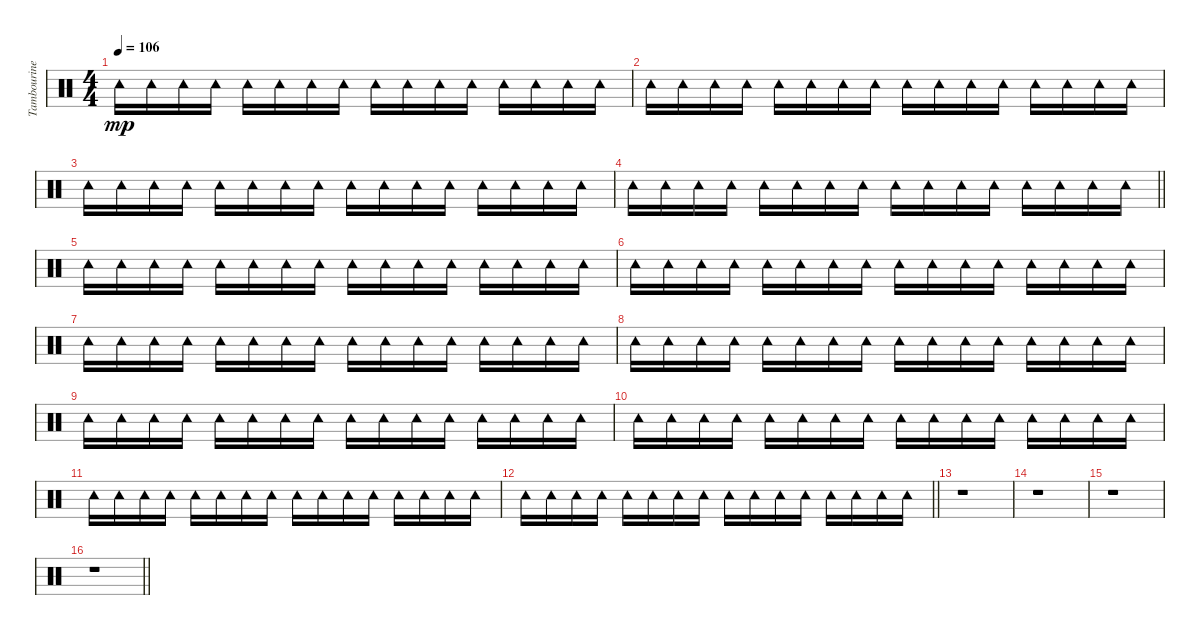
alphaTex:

\track ("Tambourine" "Tambourine") {instrument percussion}
\staff {score}
\articulation defaults
\ts (4 4)
\tempo 106
\clef neutral
\ks c "Tambourine (hit)".16{dy mp} "Tambourine (hit)".16 "Tambourine (hit)".16 "Tambourine (hit)".16 "Tambourine (hit)".16 "Tambourine (hit)".16 "Tambourine (hit)".16 "Tambourine (hit)".16 "Tambourine (hit)".16 "Tambourine (hit)".16 "Tambourine (hit)".16 "Tambourine (hit)".16 "Tambourine (hit)".16 "Tambourine (hit)".16 "Tambourine (hit)".16 "Tambourine (hit)".16
|
"Tambourine (hit)".16 "Tambourine (hit)".16 "Tambourine (hit)".16 "Tambourine (hit)".16 "Tambourine (hit)".16 "Tambourine (hit)".16 "Tambourine (hit)".16 "Tambourine (hit)".16 "Tambourine (hit)".16 "Tambourine (hit)".16 "Tambourine (hit)".16 "Tambourine (hit)".16 "Tambourine (hit)".16 "Tambourine (hit)".16 "Tambourine (hit)".16 "Tambourine (hit)".16 |
"Tambourine (hit)".16 "Tambourine (hit)".16 "Tambourine (hit)".16 "Tambourine (hit)".16 "Tambourine (hit)".16 "Tambourine (hit)".16 "Tambourine (hit)".16 "Tambourine (hit)".16 "Tambourine (hit)".16 "Tambourine (hit)".16 "Tambourine (hit)".16 "Tambourine (hit)".16 "Tambourine (hit)".16 "Tambourine (hit)".16 "Tambourine (hit)".16 "Tambourine (hit)".16 |
\barLineRight lightlight "Tambourine (hit)".16 "Tambourine (hit)".16 "Tambourine (hit)".16 "Tambourine (hit)".16 "Tambourine (hit)".16 "Tambourine (hit)".16 "Tambourine (hit)".16 "Tambourine (hit)".16 "Tambourine (hit)".16 "Tambourine (hit)".16 "Tambourine (hit)".16 "Tambourine (hit)".16 "Tambourine (hit)".16 "Tambourine (hit)".16 "Tambourine (hit)".16 "Tambourine (hit)".16
|
\section ("" "")
"Tambourine (hit)".16 "Tambourine (hit)".16 "Tambourine (hit)".16 "Tambourine (hit)".16 "Tambourine (hit)".16 "Tambourine (hit)".16 "Tambourine (hit)".16 "Tambourine (hit)".16 "Tambourine (hit)".16 "Tambourine (hit)".16 "Tambourine (hit)".16 "Tambourine (hit)".16 "Tambourine (hit)".16 "Tambourine (hit)".16 "Tambourine (hit)".16 "Tambourine (hit)".16 |
"Tambourine (hit)".16 "Tambourine (hit)".16 "Tambourine (hit)".16 "Tambourine (hit)".16 "Tambourine (hit)".16 "Tambourine (hit)".16 "Tambourine (hit)".16 "Tambourine (hit)".16 "Tambourine (hit)".16 "Tambourine (hit)".16 "Tambourine (hit)".16 "Tambourine (hit)".16 "Tambourine (hit)".16 "Tambourine (hit)".16 "Tambourine (hit)".16 "Tambourine (hit)".16 |
"Tambourine (hit)".16 "Tambourine (hit)".16 "Tambourine (hit)".16 "Tambourine (hit)".16 "Tambourine (hit)".16 "Tambourine (hit)".16 "Tambourine (hit)".16 "Tambourine (hit)".16 "Tambourine (hit)".16 "Tambourine (hit)".16 "Tambourine (hit)".16 "Tambourine (hit)".16 "Tambourine (hit)".16 "Tambourine (hit)".16 "Tambourine (hit)".16 "Tambourine (hit)".16 |
"Tambourine (hit)".16 "Tambourine (hit)".16 "Tambourine (hit)".16 "Tambourine (hit)".16 "Tambourine (hit)".16 "Tambourine (hit)".16 "Tambourine (hit)".16 "Tambourine (hit)".16 "Tambourine (hit)".16 "Tambourine (hit)".16 "Tambourine (hit)".16 "Tambourine (hit)".16 "Tambourine (hit)".16 "Tambourine (hit)".16 "Tambourine (hit)".16 "Tambourine (hit)".16 |
"Tambourine (hit)".16 "Tambourine (hit)".16 "Tambourine (hit)".16 "Tambourine (hit)".16 "Tambourine (hit)".16 "Tambourine (hit)".16 "Tambourine (hit)".16 "Tambourine (hit)".16 "Tambourine (hit)".16 "Tambourine (hit)".16 "Tambourine (hit)".16 "Tambourine (hit)".16 "Tambourine (hit)".16 "Tambourine (hit)".16 "Tambourine (hit)".16 "Tambourine (hit)".16 |
"Tambourine (hit)".16 "Tambourine (hit)".16 "Tambourine (hit)".16 "Tambourine (hit)".16 "Tambourine (hit)".16 "Tambourine (hit)".16 "Tambourine (hit)".16 "Tambourine (hit)".16 "Tambourine (hit)".16 "Tambourine (hit)".16 "Tambourine (hit)".16 "Tambourine (hit)".16 "Tambourine (hit)".16 "Tambourine (hit)".16 "Tambourine (hit)".16 "Tambourine (hit)".16 |
"Tambourine (hit)".16 "Tambourine (hit)".16 "Tambourine (hit)".16 "Tambourine (hit)".16 "Tambourine (hit)".16 "Tambourine (hit)".16 "Tambourine (hit)".16 "Tambourine (hit)".16 "Tambourine (hit)".16 "Tambourine (hit)".16 "Tambourine (hit)".16 "Tambourine (hit)".16 "Tambourine (hit)".16 "Tambourine (hit)".16 "Tambourine (hit)".16 "Tambourine (hit)".16 |
\barLineRight lightlight "Tambourine (hit)".16 "Tambourine (hit)".16 "Tambourine (hit)".16 "Tambourine (hit)".16 "Tambourine (hit)".16 "Tambourine (hit)".16 "Tambourine (hit)".16 "Tambourine (hit)".16 "Tambourine (hit)".16 "Tambourine (hit)".16 "Tambourine (hit)".16 "Tambourine (hit)".16 "Tambourine (hit)".16 "Tambourine (hit)".16 "Tambourine (hit)".16 "Tambourine (hit)".16
|
r.1 |
r.1 |
r.1 |
\barLineRight lightlight
r.1
